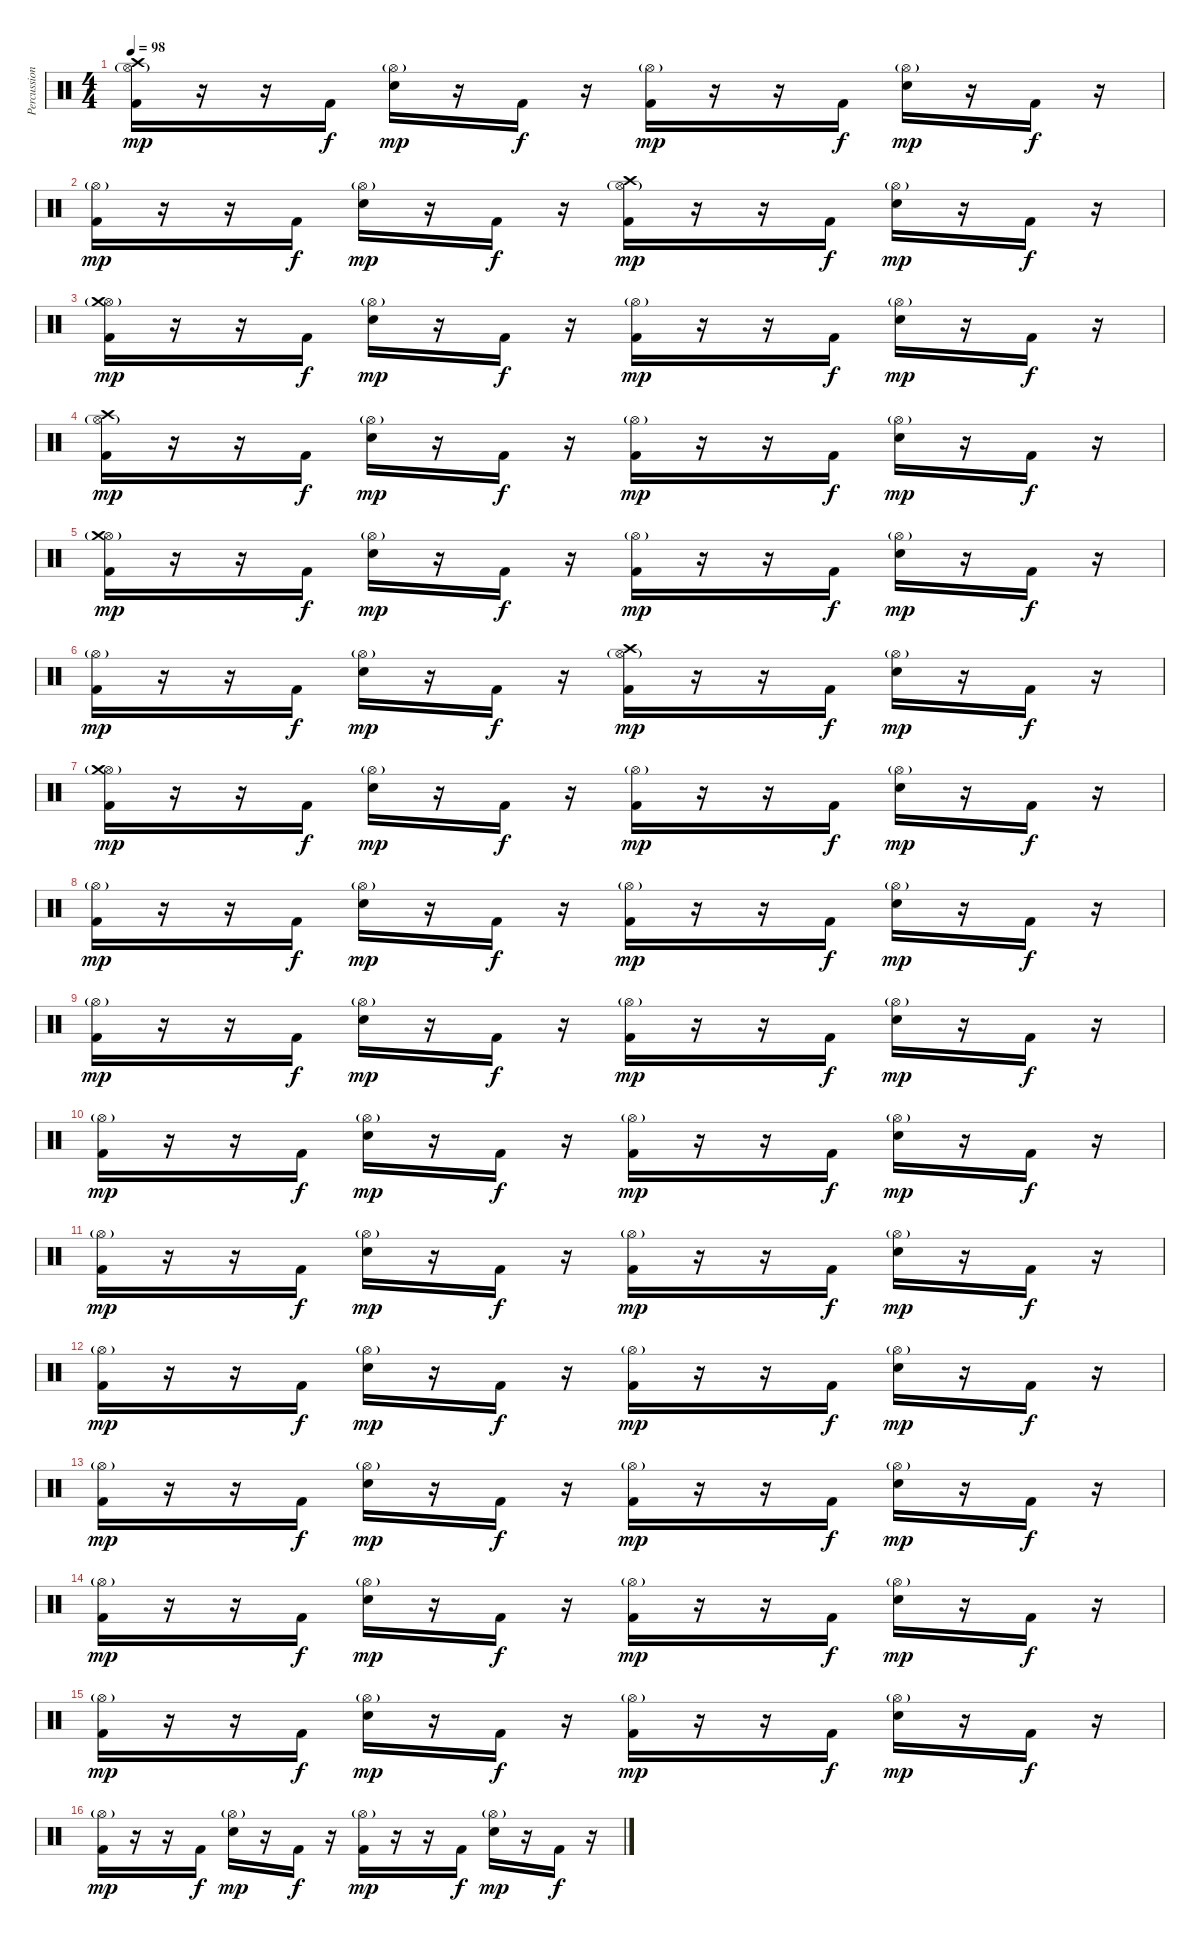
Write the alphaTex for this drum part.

\track ("Percussions" "Percussion") {instrument percussion}
\staff {score}
\articulation defaults
\ts (4 4)
\tempo 98
\clef neutral
\ks c
("Hi-Hat (open)"{g} "Crash high (hit)" "Kick (hit) 2").16{dy mp} r.16 r.16 "Kick (hit) 2".16{dy f} ("Hi-Hat (open)"{g} "Snare (hit) 2").16{dy mp} r.16 "Kick (hit) 2".16{dy f} r.16 ("Hi-Hat (open)"{g} "Kick (hit) 2").16{dy mp} r.16 r.16 "Kick (hit) 2".16{dy f} ("Hi-Hat (open)"{g} "Snare (hit) 2").16{dy mp} r.16 "Kick (hit) 2".16{dy f} r.16 |
("Hi-Hat (open)"{g} "Kick (hit) 2").16{dy mp} r.16 r.16 "Kick (hit) 2".16{dy f} ("Hi-Hat (open)"{g} "Snare (hit) 2").16{dy mp} r.16 "Kick (hit) 2".16{dy f} r.16 ("Hi-Hat (open)"{g} "Crash high (hit)" "Kick (hit) 2").16{dy mp} r.16 r.16 "Kick (hit) 2".16{dy f} ("Hi-Hat (open)"{g} "Snare (hit) 2").16{dy mp} r.16 "Kick (hit) 2".16{dy f} r.16 |
("Hi-Hat (open)"{g} "Crash medium (hit)" "Kick (hit) 2").16{dy mp} r.16 r.16 "Kick (hit) 2".16{dy f} ("Hi-Hat (open)"{g} "Snare (hit) 2").16{dy mp} r.16 "Kick (hit) 2".16{dy f} r.16 ("Hi-Hat (open)"{g} "Kick (hit) 2").16{dy mp} r.16 r.16 "Kick (hit) 2".16{dy f} ("Hi-Hat (open)"{g} "Snare (hit) 2").16{dy mp} r.16 "Kick (hit) 2".16{dy f} r.16 |
("Hi-Hat (open)"{g} "Crash high (hit)" "Kick (hit) 2").16{dy mp} r.16 r.16 "Kick (hit) 2".16{dy f} ("Hi-Hat (open)"{g} "Snare (hit) 2").16{dy mp} r.16 "Kick (hit) 2".16{dy f} r.16 ("Hi-Hat (open)"{g} "Kick (hit) 2").16{dy mp} r.16 r.16 "Kick (hit) 2".16{dy f} ("Hi-Hat (open)"{g} "Snare (hit) 2").16{dy mp} r.16 "Kick (hit) 2".16{dy f} r.16 |
("Hi-Hat (open)"{g} "Crash medium (hit)" "Kick (hit) 2").16{dy mp} r.16 r.16 "Kick (hit) 2".16{dy f} ("Hi-Hat (open)"{g} "Snare (hit) 2").16{dy mp} r.16 "Kick (hit) 2".16{dy f} r.16 ("Hi-Hat (open)"{g} "Kick (hit) 2").16{dy mp} r.16 r.16 "Kick (hit) 2".16{dy f} ("Hi-Hat (open)"{g} "Snare (hit) 2").16{dy mp} r.16 "Kick (hit) 2".16{dy f} r.16 |
("Hi-Hat (open)"{g} "Kick (hit) 2").16{dy mp} r.16 r.16 "Kick (hit) 2".16{dy f} ("Hi-Hat (open)"{g} "Snare (hit) 2").16{dy mp} r.16 "Kick (hit) 2".16{dy f} r.16 ("Hi-Hat (open)"{g} "Crash high (hit)" "Kick (hit) 2").16{dy mp} r.16 r.16 "Kick (hit) 2".16{dy f} ("Hi-Hat (open)"{g} "Snare (hit) 2").16{dy mp} r.16 "Kick (hit) 2".16{dy f} r.16 |
("Hi-Hat (open)"{g} "Crash medium (hit)" "Kick (hit) 2").16{dy mp} r.16 r.16 "Kick (hit) 2".16{dy f} ("Hi-Hat (open)"{g} "Snare (hit) 2").16{dy mp} r.16 "Kick (hit) 2".16{dy f} r.16 ("Hi-Hat (open)"{g} "Kick (hit) 2").16{dy mp} r.16 r.16 "Kick (hit) 2".16{dy f} ("Hi-Hat (open)"{g} "Snare (hit) 2").16{dy mp} r.16 "Kick (hit) 2".16{dy f} r.16 |
("Hi-Hat (open)"{g} "Kick (hit) 2").16{dy mp} r.16 r.16 "Kick (hit) 2".16{dy f} ("Hi-Hat (open)"{g} "Snare (hit) 2").16{dy mp} r.16 "Kick (hit) 2".16{dy f} r.16 ("Hi-Hat (open)"{g} "Kick (hit) 2").16{dy mp} r.16 r.16 "Kick (hit) 2".16{dy f} ("Hi-Hat (open)"{g} "Snare (hit) 2").16{dy mp} r.16 "Kick (hit) 2".16{dy f} r.16 |
("Hi-Hat (open)"{g} "Kick (hit) 2").16{dy mp} r.16 r.16 "Kick (hit) 2".16{dy f} ("Hi-Hat (open)"{g} "Snare (hit) 2").16{dy mp} r.16 "Kick (hit) 2".16{dy f} r.16 ("Hi-Hat (open)"{g} "Kick (hit) 2").16{dy mp} r.16 r.16 "Kick (hit) 2".16{dy f} ("Hi-Hat (open)"{g} "Snare (hit) 2").16{dy mp} r.16 "Kick (hit) 2".16{dy f} r.16 |
("Hi-Hat (open)"{g} "Kick (hit) 2").16{dy mp} r.16 r.16 "Kick (hit) 2".16{dy f} ("Hi-Hat (open)"{g} "Snare (hit) 2").16{dy mp} r.16 "Kick (hit) 2".16{dy f} r.16 ("Hi-Hat (open)"{g} "Kick (hit) 2").16{dy mp} r.16 r.16 "Kick (hit) 2".16{dy f} ("Hi-Hat (open)"{g} "Snare (hit) 2").16{dy mp} r.16 "Kick (hit) 2".16{dy f} r.16 |
("Hi-Hat (open)"{g} "Kick (hit) 2").16{dy mp} r.16 r.16 "Kick (hit) 2".16{dy f} ("Hi-Hat (open)"{g} "Snare (hit) 2").16{dy mp} r.16 "Kick (hit) 2".16{dy f} r.16 ("Hi-Hat (open)"{g} "Kick (hit) 2").16{dy mp} r.16 r.16 "Kick (hit) 2".16{dy f} ("Hi-Hat (open)"{g} "Snare (hit) 2").16{dy mp} r.16 "Kick (hit) 2".16{dy f} r.16 |
("Hi-Hat (open)"{g} "Kick (hit) 2").16{dy mp} r.16 r.16 "Kick (hit) 2".16{dy f} ("Hi-Hat (open)"{g} "Snare (hit) 2").16{dy mp} r.16 "Kick (hit) 2".16{dy f} r.16 ("Hi-Hat (open)"{g} "Kick (hit) 2").16{dy mp} r.16 r.16 "Kick (hit) 2".16{dy f} ("Hi-Hat (open)"{g} "Snare (hit) 2").16{dy mp} r.16 "Kick (hit) 2".16{dy f} r.16 |
("Hi-Hat (open)"{g} "Kick (hit) 2").16{dy mp} r.16 r.16 "Kick (hit) 2".16{dy f} ("Hi-Hat (open)"{g} "Snare (hit) 2").16{dy mp} r.16 "Kick (hit) 2".16{dy f} r.16 ("Hi-Hat (open)"{g} "Kick (hit) 2").16{dy mp} r.16 r.16 "Kick (hit) 2".16{dy f} ("Hi-Hat (open)"{g} "Snare (hit) 2").16{dy mp} r.16 "Kick (hit) 2".16{dy f} r.16 |
("Hi-Hat (open)"{g} "Kick (hit) 2").16{dy mp} r.16 r.16 "Kick (hit) 2".16{dy f} ("Hi-Hat (open)"{g} "Snare (hit) 2").16{dy mp} r.16 "Kick (hit) 2".16{dy f} r.16 ("Hi-Hat (open)"{g} "Kick (hit) 2").16{dy mp} r.16 r.16 "Kick (hit) 2".16{dy f} ("Hi-Hat (open)"{g} "Snare (hit) 2").16{dy mp} r.16 "Kick (hit) 2".16{dy f} r.16 |
("Hi-Hat (open)"{g} "Kick (hit) 2").16{dy mp} r.16 r.16 "Kick (hit) 2".16{dy f} ("Hi-Hat (open)"{g} "Snare (hit) 2").16{dy mp} r.16 "Kick (hit) 2".16{dy f} r.16 ("Hi-Hat (open)"{g} "Kick (hit) 2").16{dy mp} r.16 r.16 "Kick (hit) 2".16{dy f} ("Hi-Hat (open)"{g} "Snare (hit) 2").16{dy mp} r.16 "Kick (hit) 2".16{dy f} r.16 |
("Hi-Hat (open)"{g} "Kick (hit) 2").16{dy mp} r.16 r.16 "Kick (hit) 2".16{dy f} ("Hi-Hat (open)"{g} "Snare (hit) 2").16{dy mp} r.16 "Kick (hit) 2".16{dy f} r.16 ("Hi-Hat (open)"{g} "Kick (hit) 2").16{dy mp} r.16 r.16 "Kick (hit) 2".16{dy f} ("Hi-Hat (open)"{g} "Snare (hit) 2").16{dy mp} r.16 "Kick (hit) 2".16{dy f} r.16
